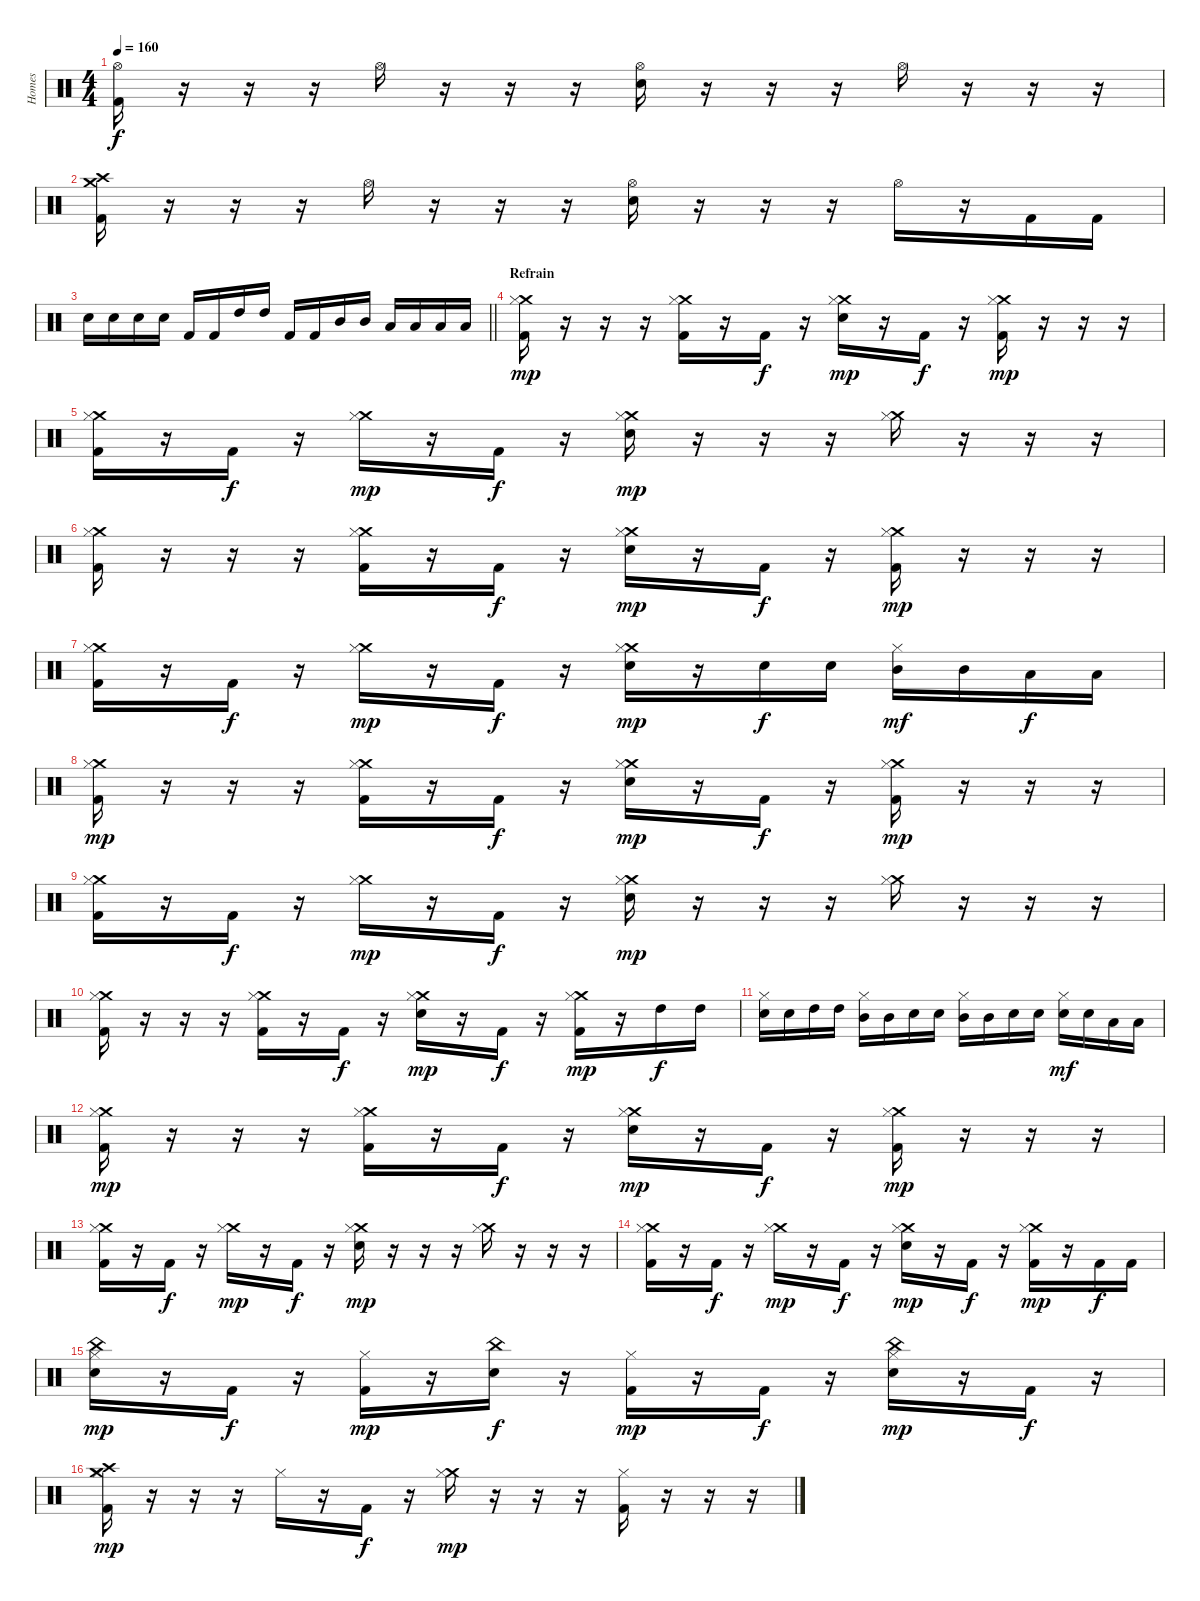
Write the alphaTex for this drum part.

\track ("Homes" "Homes") {instrument percussion}
\staff {score}
\articulation defaults
\ts (4 4)
\tempo 160
\clef neutral
\ks c
("Hi-Hat (open)" "Kick (hit) 2").16{dy f} r.16 r.16 r.16 "Hi-Hat (open)".16 r.16 r.16 r.16 ("Hi-Hat (open)" "Electric Snare (hit)").16 r.16 r.16 r.16 "Hi-Hat (open)".16 r.16 r.16 r.16 |
("Crash high (hit)" "Crash medium (hit)" "Kick (hit) 2").16 r.16 r.16 r.16 "Hi-Hat (open)".16 r.16 r.16 r.16 ("Hi-Hat (open)" "Electric Snare (hit)").16 r.16 r.16 r.16 "Hi-Hat (open)".16 r.16 "Kick (hit) 2".16 "Kick (hit) 2".16 |
\barLineRight lightlight "Electric Snare (hit)".16 "Electric Snare (hit)".16 "Electric Snare (hit)".16 "Electric Snare (hit)".16 "Kick (hit) 2".16 "Kick (hit) 2".16 "High Tom (hit)".16 "High Tom (hit)".16 "Kick (hit) 2".16 "Kick (hit) 2".16 "Mid Tom (hit)".16 "Mid Tom (hit)".16 "Low Tom (hit)".16 "Low Tom (hit)".16 "Low Tom (hit)".16 "Low Tom (hit)".16
|
\section ("" "Refrain")
("Crash medium (hit)" "Hi-Hat (closed)" "Kick (hit) 2").16{dy mp} r.16 r.16 r.16 ("Crash medium (hit)" "Hi-Hat (closed)" "Kick (hit) 2").16 r.16 "Kick (hit) 2".16{dy f} r.16 ("Crash medium (hit)" "Hi-Hat (closed)" "Electric Snare (hit)").16{dy mp} r.16 "Kick (hit) 2".16{dy f} r.16 ("Crash medium (hit)" "Hi-Hat (closed)" "Kick (hit) 2").16{dy mp} r.16 r.16 r.16 |
("Crash medium (hit)" "Hi-Hat (closed)" "Kick (hit) 2").16 r.16 "Kick (hit) 2".16{dy f} r.16 ("Crash medium (hit)" "Hi-Hat (closed)").16{dy mp} r.16 "Kick (hit) 2".16{dy f} r.16 ("Crash medium (hit)" "Hi-Hat (closed)" "Electric Snare (hit)").16{dy mp} r.16 r.16 r.16 ("Crash medium (hit)" "Hi-Hat (closed)").16 r.16 r.16 r.16 |
("Crash medium (hit)" "Hi-Hat (closed)" "Kick (hit) 2").16 r.16 r.16 r.16 ("Crash medium (hit)" "Hi-Hat (closed)" "Kick (hit) 2").16 r.16 "Kick (hit) 2".16{dy f} r.16 ("Crash medium (hit)" "Hi-Hat (closed)" "Electric Snare (hit)").16{dy mp} r.16 "Kick (hit) 2".16{dy f} r.16 ("Crash medium (hit)" "Hi-Hat (closed)" "Kick (hit) 2").16{dy mp} r.16 r.16 r.16 |
("Crash medium (hit)" "Hi-Hat (closed)" "Kick (hit) 2").16 r.16 "Kick (hit) 2".16{dy f} r.16 ("Crash medium (hit)" "Hi-Hat (closed)").16{dy mp} r.16 "Kick (hit) 2".16{dy f} r.16 ("Crash medium (hit)" "Hi-Hat (closed)" "Electric Snare (hit)").16{dy mp} r.16 "Electric Snare (hit)".16{dy f} "Electric Snare (hit)".16 ("Hi-Hat (closed)" "Mid Tom (hit)").16{dy mf} "Mid Tom (hit)".16 "Low Tom (hit)".16{dy f} "Low Tom (hit)".16 |
("Crash medium (hit)" "Hi-Hat (closed)" "Kick (hit) 2").16{dy mp} r.16 r.16 r.16 ("Crash medium (hit)" "Hi-Hat (closed)" "Kick (hit) 2").16 r.16 "Kick (hit) 2".16{dy f} r.16 ("Crash medium (hit)" "Hi-Hat (closed)" "Electric Snare (hit)").16{dy mp} r.16 "Kick (hit) 2".16{dy f} r.16 ("Crash medium (hit)" "Hi-Hat (closed)" "Kick (hit) 2").16{dy mp} r.16 r.16 r.16 |
("Crash medium (hit)" "Hi-Hat (closed)" "Kick (hit) 2").16 r.16 "Kick (hit) 2".16{dy f} r.16 ("Crash medium (hit)" "Hi-Hat (closed)").16{dy mp} r.16 "Kick (hit) 2".16{dy f} r.16 ("Crash medium (hit)" "Hi-Hat (closed)" "Electric Snare (hit)").16{dy mp} r.16 r.16 r.16 ("Crash medium (hit)" "Hi-Hat (closed)").16 r.16 r.16 r.16 |
("Crash medium (hit)" "Hi-Hat (closed)" "Kick (hit) 2").16 r.16 r.16 r.16 ("Crash medium (hit)" "Hi-Hat (closed)" "Kick (hit) 2").16 r.16 "Kick (hit) 2".16{dy f} r.16 ("Crash medium (hit)" "Hi-Hat (closed)" "Electric Snare (hit)").16{dy mp} r.16 "Kick (hit) 2".16{dy f} r.16 ("Crash medium (hit)" "Hi-Hat (closed)" "Kick (hit) 2").16{dy mp} r.16 "High Tom (hit)".16{dy f} "High Tom (hit)".16 |
("Hi-Hat (closed)" "Electric Snare (hit)").16 "Electric Snare (hit)".16 "High Tom (hit)".16 "High Tom (hit)".16 ("Hi-Hat (closed)" "Mid Tom (hit)").16 "Mid Tom (hit)".16 "Electric Snare (hit)".16 "Electric Snare (hit)".16 ("Hi-Hat (closed)" "Mid Tom (hit)").16 "Mid Tom (hit)".16 "Electric Snare (hit)".16 "Electric Snare (hit)".16 ("Hi-Hat (closed)" "Electric Snare (hit)").16{dy mf} "Electric Snare (hit)".16 "Low Tom (hit)".16 "Low Tom (hit)".16 |
("Crash medium (hit)" "Hi-Hat (closed)" "Kick (hit) 2").16{dy mp} r.16 r.16 r.16 ("Crash medium (hit)" "Hi-Hat (closed)" "Kick (hit) 2").16 r.16 "Kick (hit) 2".16{dy f} r.16 ("Crash medium (hit)" "Hi-Hat (closed)" "Electric Snare (hit)").16{dy mp} r.16 "Kick (hit) 2".16{dy f} r.16 ("Crash medium (hit)" "Hi-Hat (closed)" "Kick (hit) 2").16{dy mp} r.16 r.16 r.16 |
("Crash medium (hit)" "Hi-Hat (closed)" "Kick (hit) 2").16 r.16 "Kick (hit) 2".16{dy f} r.16 ("Crash medium (hit)" "Hi-Hat (closed)").16{dy mp} r.16 "Kick (hit) 2".16{dy f} r.16 ("Crash medium (hit)" "Hi-Hat (closed)" "Electric Snare (hit)").16{dy mp} r.16 r.16 r.16 ("Crash medium (hit)" "Hi-Hat (closed)").16 r.16 r.16 r.16 |
("Crash medium (hit)" "Hi-Hat (closed)" "Kick (hit) 2").16 r.16 "Kick (hit) 2".16{dy f} r.16 ("Crash medium (hit)" "Hi-Hat (closed)").16{dy mp} r.16 "Kick (hit) 2".16{dy f} r.16 ("Crash medium (hit)" "Hi-Hat (closed)" "Electric Snare (hit)").16{dy mp} r.16 "Kick (hit) 2".16{dy f} r.16 ("Crash medium (hit)" "Hi-Hat (closed)" "Kick (hit) 2").16{dy mp} r.16 "Kick (hit) 2".16{dy f} "Kick (hit) 2".16 |
("China (hit)" "Hi-Hat (closed)" "Electric Snare (hit)").16{dy mp} r.16 "Kick (hit) 2".16{dy f} r.16 ("Hi-Hat (closed)" "Kick (hit) 2").16{dy mp} r.16 ("China (hit)" "Electric Snare (hit)").16{dy f} r.16 ("Hi-Hat (closed)" "Kick (hit) 2").16{dy mp} r.16 "Kick (hit) 2".16{dy f} r.16 ("China (hit)" "Hi-Hat (closed)" "Electric Snare (hit)").16{dy mp} r.16 "Kick (hit) 2".16{dy f} r.16 |
("Crash medium (hit)" "Crash high (hit)" "Hi-Hat (closed)" "Kick (hit) 2").16{dy mp} r.16 r.16 r.16 "Hi-Hat (closed)".16 r.16 "Kick (hit) 2".16{dy f} r.16 ("Crash medium (hit)" "Hi-Hat (closed)").16{dy mp} r.16 r.16 r.16 ("Hi-Hat (closed)" "Kick (hit) 2").16 r.16 r.16 r.16
